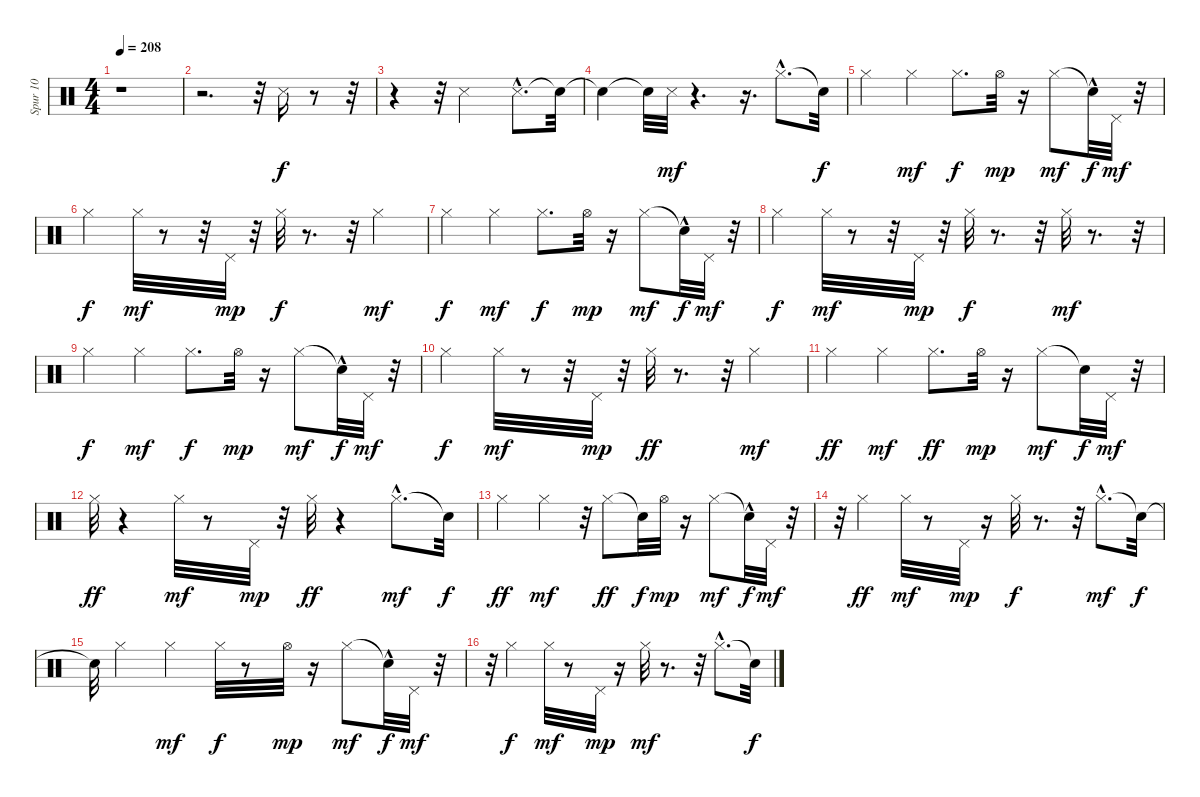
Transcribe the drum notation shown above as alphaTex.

\track ("Spur 10" "Spur 10") {instrument percussion}
\staff {score}
\articulation defaults
\ts (4 4)
\tempo 208
\clef neutral
\ks c
r.1{dy f} |
r.2{d} r.32 "Snare (side stick) 3".16{balance 8} r.8 r.32 |
r.4 r.32 "Snare (side stick) 3".2 "Snare (side stick) 3"{hac}.8{d} "Snare (hit)"{t}.32 |
"Snare (hit)"{t}.4 "Snare (hit)"{t}.32 "Snare (side stick) 3".32{dy mf} r.4{d} r.16{d} "Hi-Hat (closed)"{hac}.8{d} "Snare (hit)"{t}.32{dy f} |
"Hi-Hat (closed)".4 "Hi-Hat (closed)".4{dy mf} "Hi-Hat (closed)".8{d dy f} "Hi-Hat (open)".32{dy mp} r.16 "Hi-Hat (closed)".8{dy mf} "Snare (hit)"{hac t}.32{dy f} "Pedal Hi-Hat (hit)".32{dy mf} r.32 |
"Hi-Hat (closed)".4{dy f} "Hi-Hat (closed)".32{dy mf} r.8 r.32 "Pedal Hi-Hat (hit)".32{dy mp} r.32 "Hi-Hat (closed)".32{dy f} r.8{d} r.32 "Hi-Hat (closed)".4{dy mf} |
"Hi-Hat (closed)".4{dy f} "Hi-Hat (closed)".4{dy mf} "Hi-Hat (closed)".8{d dy f} "Hi-Hat (open)".32{dy mp} r.16 "Hi-Hat (closed)".8{dy mf} "Snare (hit)"{hac t}.32{dy f} "Pedal Hi-Hat (hit)".32{dy mf} r.32 |
"Hi-Hat (closed)".4{dy f} "Hi-Hat (closed)".32{dy mf} r.8 r.32 "Pedal Hi-Hat (hit)".32{dy mp} r.32 "Hi-Hat (closed)".32{dy f} r.8{d} r.32 "Hi-Hat (closed)".32{dy mf} r.8{d} r.32 |
"Hi-Hat (closed)".4{dy f} "Hi-Hat (closed)".4{dy mf} "Hi-Hat (closed)".8{d dy f} "Hi-Hat (open)".32{dy mp} r.16 "Hi-Hat (closed)".8{dy mf} "Snare (hit)"{hac t}.32{dy f} "Pedal Hi-Hat (hit)".32{dy mf} r.32 |
"Hi-Hat (closed)".4{dy f} "Hi-Hat (closed)".32{dy mf} r.8 r.32 "Pedal Hi-Hat (hit)".32{dy mp} r.32 "Hi-Hat (closed)".32{dy ff} r.8{d} r.32 "Hi-Hat (closed)".4{dy mf} |
"Hi-Hat (closed)".4{dy ff} "Hi-Hat (closed)".4{dy mf} "Hi-Hat (closed)".8{d dy ff} "Hi-Hat (open)".32{dy mp} r.16 "Hi-Hat (closed)".8{dy mf} "Snare (hit)"{t}.32{dy f} "Pedal Hi-Hat (hit)".32{dy mf} r.32 |
"Hi-Hat (closed)".32{dy ff} r.4 "Hi-Hat (closed)".32{dy mf} r.8 "Pedal Hi-Hat (hit)".32{dy mp} r.32 "Hi-Hat (closed)".32{dy ff} r.4 "Hi-Hat (closed)"{hac}.8{d dy mf} "Snare (hit)"{t}.32{dy f} |
"Hi-Hat (closed)".4{dy ff} "Hi-Hat (closed)".4{dy mf} r.32 "Hi-Hat (closed)".8{dy ff} "Snare (hit)"{t}.32{dy f} "Hi-Hat (open)".32{dy mp} r.16 "Hi-Hat (closed)".8{dy mf} "Snare (hit)"{hac t}.32{dy f} "Pedal Hi-Hat (hit)".32{dy mf} r.32 |
r.32 "Hi-Hat (closed)".4{dy ff} "Hi-Hat (closed)".32{dy mf} r.8 "Pedal Hi-Hat (hit)".32{dy mp} r.16 "Hi-Hat (closed)".32{dy f} r.8{d} r.32 "Hi-Hat (closed)"{hac}.8{d dy mf} "Snare (hit)"{t}.32{dy f} |
"Snare (hit)"{t}.32 "Hi-Hat (closed)".4 "Hi-Hat (closed)".4{dy mf} "Hi-Hat (closed)".32{dy f} r.8 "Hi-Hat (open)".32{dy mp} r.16 "Hi-Hat (closed)".8{dy mf} "Snare (hit)"{hac t}.32{dy f} "Pedal Hi-Hat (hit)".32{dy mf} r.32 |
r.32 "Hi-Hat (closed)".4{dy f} "Hi-Hat (closed)".32{dy mf} r.8 "Pedal Hi-Hat (hit)".32{dy mp} r.16 "Hi-Hat (closed)".32{dy mf} r.8{d} r.32 "Hi-Hat (closed)"{hac}.8{d} "Snare (hit)"{t}.32{dy f}
